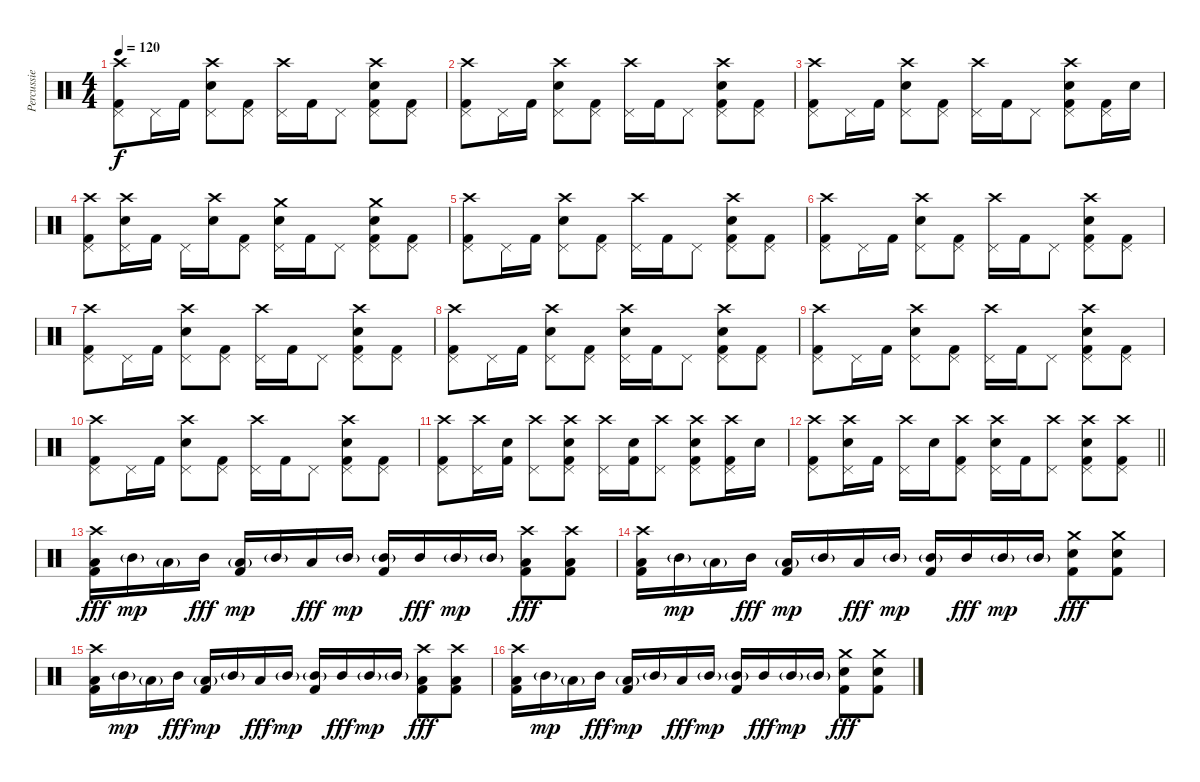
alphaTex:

\track ("Percussie" "Percussie") {instrument percussion}
\staff {score}
\articulation defaults
\ts (4 4)
\tempo 120
\clef neutral
\ks c
("Crash high (hit)" "Pedal Hi-Hat (hit)" "Kick (hit) 2").8{dy f} "Pedal Hi-Hat (hit)".16 "Kick (hit) 2".16 ("Crash high (hit)" "Pedal Hi-Hat (hit)" "Snare (hit) 2").8 ("Pedal Hi-Hat (hit)" "Kick (hit) 2").8 ("Crash high (hit)" "Pedal Hi-Hat (hit)").16 "Kick (hit) 2".16 "Pedal Hi-Hat (hit)".8 ("Crash high (hit)" "Pedal Hi-Hat (hit)" "Snare (hit) 2" "Kick (hit) 2").8 ("Pedal Hi-Hat (hit)" "Kick (hit) 2").8 |
("Crash high (hit)" "Pedal Hi-Hat (hit)" "Kick (hit) 2").8 "Pedal Hi-Hat (hit)".16 "Kick (hit) 2".16 ("Crash high (hit)" "Pedal Hi-Hat (hit)" "Snare (hit) 2").8 ("Pedal Hi-Hat (hit)" "Kick (hit) 2").8 ("Crash high (hit)" "Pedal Hi-Hat (hit)").16 "Kick (hit) 2".16 "Pedal Hi-Hat (hit)".8 ("Crash high (hit)" "Pedal Hi-Hat (hit)" "Snare (hit) 2" "Kick (hit) 2").8 ("Pedal Hi-Hat (hit)" "Kick (hit) 2").8 |
("Crash high (hit)" "Pedal Hi-Hat (hit)" "Kick (hit) 2").8 "Pedal Hi-Hat (hit)".16 "Kick (hit) 2".16 ("Crash high (hit)" "Pedal Hi-Hat (hit)" "Snare (hit) 2").8 ("Pedal Hi-Hat (hit)" "Kick (hit) 2").8 ("Crash high (hit)" "Pedal Hi-Hat (hit)").16 "Kick (hit) 2".16 "Pedal Hi-Hat (hit)".8 ("Crash high (hit)" "Pedal Hi-Hat (hit)" "Snare (hit) 2" "Kick (hit) 2").8 ("Pedal Hi-Hat (hit)" "Kick (hit) 2").16 "Snare (hit) 2".16 |
("Crash high (hit)" "Pedal Hi-Hat (hit)" "Kick (hit) 2").8 ("Crash high (hit)" "Pedal Hi-Hat (hit)" "Snare (hit) 2").16 "Kick (hit) 2".16 "Pedal Hi-Hat (hit)".16 ("Crash high (hit)" "Snare (hit) 2").16 ("Pedal Hi-Hat (hit)" "Kick (hit) 2").8 ("Crash medium (hit)" "Pedal Hi-Hat (hit)" "Snare (hit) 2").16 "Kick (hit) 2".16 "Pedal Hi-Hat (hit)".8 ("Crash medium (hit)" "Pedal Hi-Hat (hit)" "Snare (hit) 2" "Kick (hit) 2").8 ("Pedal Hi-Hat (hit)" "Kick (hit) 2").8 |
("Crash high (hit)" "Pedal Hi-Hat (hit)" "Kick (hit) 2").8 "Pedal Hi-Hat (hit)".16 "Kick (hit) 2".16 ("Crash high (hit)" "Pedal Hi-Hat (hit)" "Snare (hit) 2").8 ("Pedal Hi-Hat (hit)" "Kick (hit) 2").8 ("Crash high (hit)" "Pedal Hi-Hat (hit)").16 "Kick (hit) 2".16 "Pedal Hi-Hat (hit)".8 ("Crash high (hit)" "Pedal Hi-Hat (hit)" "Snare (hit) 2" "Kick (hit) 2").8 ("Pedal Hi-Hat (hit)" "Kick (hit) 2").8 |
("Crash high (hit)" "Pedal Hi-Hat (hit)" "Kick (hit) 2").8 "Pedal Hi-Hat (hit)".16 "Kick (hit) 2".16 ("Crash high (hit)" "Pedal Hi-Hat (hit)" "Snare (hit) 2").8 ("Pedal Hi-Hat (hit)" "Kick (hit) 2").8 ("Crash high (hit)" "Pedal Hi-Hat (hit)").16 "Kick (hit) 2".16 "Pedal Hi-Hat (hit)".8 ("Crash high (hit)" "Pedal Hi-Hat (hit)" "Snare (hit) 2" "Kick (hit) 2").8 ("Pedal Hi-Hat (hit)" "Kick (hit) 2").8 |
("Crash high (hit)" "Pedal Hi-Hat (hit)" "Kick (hit) 2").8 "Pedal Hi-Hat (hit)".16 "Kick (hit) 2".16 ("Crash high (hit)" "Pedal Hi-Hat (hit)" "Snare (hit) 2").8 ("Pedal Hi-Hat (hit)" "Kick (hit) 2").8 ("Crash high (hit)" "Pedal Hi-Hat (hit)").16 "Kick (hit) 2".16 "Pedal Hi-Hat (hit)".8 ("Crash high (hit)" "Pedal Hi-Hat (hit)" "Snare (hit) 2" "Kick (hit) 2").8 ("Pedal Hi-Hat (hit)" "Kick (hit) 2").8 |
("Crash high (hit)" "Pedal Hi-Hat (hit)" "Kick (hit) 2").8 "Pedal Hi-Hat (hit)".16 "Kick (hit) 2".16 ("Crash high (hit)" "Pedal Hi-Hat (hit)" "Snare (hit) 2").8 ("Pedal Hi-Hat (hit)" "Kick (hit) 2").8 ("Crash high (hit)" "Pedal Hi-Hat (hit)" "Snare (hit) 2").16 "Kick (hit) 2".16 "Pedal Hi-Hat (hit)".8 ("Crash high (hit)" "Pedal Hi-Hat (hit)" "Snare (hit) 2" "Kick (hit) 2").8 ("Pedal Hi-Hat (hit)" "Kick (hit) 2").8 |
("Crash high (hit)" "Pedal Hi-Hat (hit)" "Kick (hit) 2").8 "Pedal Hi-Hat (hit)".16 "Kick (hit) 2".16 ("Crash high (hit)" "Pedal Hi-Hat (hit)" "Snare (hit) 2").8 ("Pedal Hi-Hat (hit)" "Kick (hit) 2").8 ("Crash high (hit)" "Pedal Hi-Hat (hit)").16 "Kick (hit) 2".16 "Pedal Hi-Hat (hit)".8 ("Crash high (hit)" "Pedal Hi-Hat (hit)" "Snare (hit) 2" "Kick (hit) 2").8 ("Pedal Hi-Hat (hit)" "Kick (hit) 2").8 |
("Crash high (hit)" "Pedal Hi-Hat (hit)" "Kick (hit) 2").8 "Pedal Hi-Hat (hit)".16 "Kick (hit) 2".16 ("Crash high (hit)" "Pedal Hi-Hat (hit)" "Snare (hit) 2").8 ("Pedal Hi-Hat (hit)" "Kick (hit) 2").8 ("Crash high (hit)" "Pedal Hi-Hat (hit)").16 "Kick (hit) 2".16 "Pedal Hi-Hat (hit)".8 ("Crash high (hit)" "Pedal Hi-Hat (hit)" "Snare (hit) 2" "Kick (hit) 2").8 ("Pedal Hi-Hat (hit)" "Kick (hit) 2").8 |
("Crash high (hit)" "Pedal Hi-Hat (hit)" "Kick (hit) 2").8 ("Crash high (hit)" "Pedal Hi-Hat (hit)").16 ("Snare (hit) 2" "Kick (hit) 2").16 ("Crash high (hit)" "Pedal Hi-Hat (hit)").8 ("Crash high (hit)" "Pedal Hi-Hat (hit)" "Snare (hit) 2" "Kick (hit) 2").8 ("Crash high (hit)" "Pedal Hi-Hat (hit)").16 ("Snare (hit) 2" "Kick (hit) 2").16 ("Crash high (hit)" "Pedal Hi-Hat (hit)").8 ("Crash high (hit)" "Pedal Hi-Hat (hit)" "Snare (hit) 2" "Kick (hit) 2").8 ("Crash high (hit)" "Pedal Hi-Hat (hit)" "Kick (hit) 2").16 "Snare (hit) 2".16 |
\barLineRight lightlight
("Crash high (hit)" "Pedal Hi-Hat (hit)" "Kick (hit) 2").8 ("Crash high (hit)" "Pedal Hi-Hat (hit)" "Snare (hit) 2").16 "Kick (hit) 2".16 ("Crash high (hit)" "Pedal Hi-Hat (hit)").16 "Snare (hit) 2".16 ("Crash high (hit)" "Pedal Hi-Hat (hit)" "Kick (hit) 2").8 ("Crash high (hit)" "Pedal Hi-Hat (hit)" "Snare (hit) 2").16 "Kick (hit) 2".16 ("Crash high (hit)" "Pedal Hi-Hat (hit)").8 ("Crash high (hit)" "Pedal Hi-Hat (hit)" "Snare (hit) 2" "Kick (hit) 2").8 ("Crash high (hit)" "Pedal Hi-Hat (hit)" "Kick (hit) 2").8 |
("Crash high (hit)" "Low Tom (hit)" "Kick (hit) 2").16{dy fff} "Mid Tom (hit)"{g}.16{dy mp} "Low Tom (hit)"{g}.16 "Mid Tom (hit)".16{dy fff} ("Low Tom (hit)"{g} "Kick (hit) 2").16{dy mp} "Mid Tom (hit)"{g}.16 "Low Tom (hit)".16{dy fff} "Mid Tom (hit)"{g}.16{dy mp} ("Mid Tom (hit)"{g} "Kick (hit) 2").16 "Mid Tom (hit)".16{dy fff} "Mid Tom (hit)"{g}.16{dy mp} "Mid Tom (hit)"{g}.16 ("Crash high (hit)" "Low Tom (hit)" "Kick (hit) 2").8{dy fff} ("Crash high (hit)" "Low Tom (hit)" "Kick (hit) 2").8 |
("Crash high (hit)" "Low Tom (hit)" "Kick (hit) 2").16 "Mid Tom (hit)"{g}.16{dy mp} "Low Tom (hit)"{g}.16 "Mid Tom (hit)".16{dy fff} ("Low Tom (hit)"{g} "Kick (hit) 2").16{dy mp} "Mid Tom (hit)"{g}.16 "Low Tom (hit)".16{dy fff} "Mid Tom (hit)"{g}.16{dy mp} ("Mid Tom (hit)"{g} "Kick (hit) 2").16 "Mid Tom (hit)".16{dy fff} "Mid Tom (hit)"{g}.16{dy mp} "Mid Tom (hit)"{g}.16 ("Crash medium (hit)" "Snare (hit) 2" "Kick (hit) 2").8{dy fff} ("Crash medium (hit)" "Snare (hit) 2" "Kick (hit) 2").8 |
("Crash high (hit)" "Low Tom (hit)" "Kick (hit) 2").16 "Mid Tom (hit)"{g}.16{dy mp} "Low Tom (hit)"{g}.16 "Mid Tom (hit)".16{dy fff} ("Low Tom (hit)"{g} "Kick (hit) 2").16{dy mp} "Mid Tom (hit)"{g}.16 "Low Tom (hit)".16{dy fff} "Mid Tom (hit)"{g}.16{dy mp} ("Mid Tom (hit)"{g} "Kick (hit) 2").16 "Mid Tom (hit)".16{dy fff} "Mid Tom (hit)"{g}.16{dy mp} "Mid Tom (hit)"{g}.16 ("Crash high (hit)" "Low Tom (hit)" "Kick (hit) 2").8{dy fff} ("Crash high (hit)" "Low Tom (hit)" "Kick (hit) 2").8 |
("Crash high (hit)" "Low Tom (hit)" "Kick (hit) 2").16 "Mid Tom (hit)"{g}.16{dy mp} "Low Tom (hit)"{g}.16 "Mid Tom (hit)".16{dy fff} ("Low Tom (hit)"{g} "Kick (hit) 2").16{dy mp} "Mid Tom (hit)"{g}.16 "Low Tom (hit)".16{dy fff} "Mid Tom (hit)"{g}.16{dy mp} ("Mid Tom (hit)"{g} "Kick (hit) 2").16 "Mid Tom (hit)".16{dy fff} "Mid Tom (hit)"{g}.16{dy mp} "Mid Tom (hit)"{g}.16 ("Crash medium (hit)" "Snare (hit) 2" "Kick (hit) 2").8{dy fff} ("Crash medium (hit)" "Snare (hit) 2" "Kick (hit) 2").8
